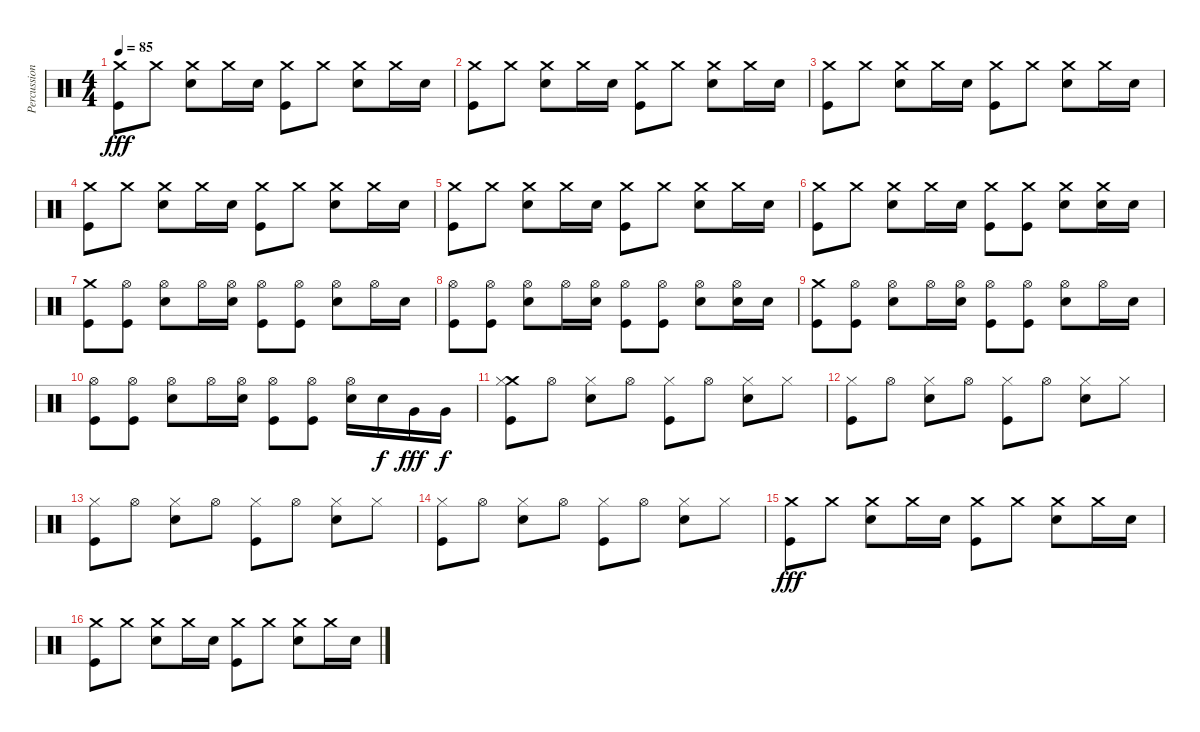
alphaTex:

\track ("Percussion" "Percussion") {instrument percussion}
\staff {score}
\articulation defaults
\ts (4 4)
\tempo 85
\clef neutral
\ks c
("Crash medium (hit)" "Kick (hit)").8{dy fff} "Crash medium (hit)".8 ("Crash medium (hit)" "Electric Snare (hit)").8 "Crash medium (hit)".16 "Electric Snare (hit)".16 ("Crash medium (hit)" "Kick (hit)").8 "Crash medium (hit)".8 ("Crash medium (hit)" "Electric Snare (hit)").8 "Crash medium (hit)".16 "Electric Snare (hit)".16 |
("Crash medium (hit)" "Kick (hit)").8 "Crash medium (hit)".8 ("Crash medium (hit)" "Electric Snare (hit)").8 "Crash medium (hit)".16 "Electric Snare (hit)".16 ("Crash medium (hit)" "Kick (hit)").8 "Crash medium (hit)".8 ("Crash medium (hit)" "Electric Snare (hit)").8 "Crash medium (hit)".16 "Electric Snare (hit)".16 |
("Crash medium (hit)" "Kick (hit)").8 "Crash medium (hit)".8 ("Crash medium (hit)" "Electric Snare (hit)").8 "Crash medium (hit)".16 "Electric Snare (hit)".16 ("Crash medium (hit)" "Kick (hit)").8 "Crash medium (hit)".8 ("Crash medium (hit)" "Electric Snare (hit)").8 "Crash medium (hit)".16 "Electric Snare (hit)".16 |
("Crash medium (hit)" "Kick (hit)").8 "Crash medium (hit)".8 ("Crash medium (hit)" "Electric Snare (hit)").8 "Crash medium (hit)".16 "Electric Snare (hit)".16 ("Crash medium (hit)" "Kick (hit)").8 "Crash medium (hit)".8 ("Crash medium (hit)" "Electric Snare (hit)").8 "Crash medium (hit)".16 "Electric Snare (hit)".16 |
("Crash medium (hit)" "Kick (hit)").8 "Crash medium (hit)".8 ("Crash medium (hit)" "Electric Snare (hit)").8 "Crash medium (hit)".16 "Electric Snare (hit)".16 ("Crash medium (hit)" "Kick (hit)").8 "Crash medium (hit)".8 ("Crash medium (hit)" "Electric Snare (hit)").8 "Crash medium (hit)".16 "Electric Snare (hit)".16 |
("Crash medium (hit)" "Kick (hit)").8 "Crash medium (hit)".8 ("Crash medium (hit)" "Electric Snare (hit)").8 "Crash medium (hit)".16 "Electric Snare (hit)".16 ("Crash medium (hit)" "Kick (hit)").8 ("Crash medium (hit)" "Kick (hit)").8 ("Crash medium (hit)" "Electric Snare (hit)").8 ("Crash medium (hit)" "Electric Snare (hit)").16 "Electric Snare (hit)".16 |
("Crash medium (hit)" "Kick (hit)").8 ("Hi-Hat (open)" "Kick (hit)").8 ("Hi-Hat (open)" "Electric Snare (hit)").8 "Hi-Hat (open)".16 ("Hi-Hat (open)" "Electric Snare (hit)").16 ("Hi-Hat (open)" "Kick (hit)").8 ("Hi-Hat (open)" "Kick (hit)").8 ("Hi-Hat (open)" "Electric Snare (hit)").8 "Hi-Hat (open)".16 "Electric Snare (hit)".16 |
("Hi-Hat (open)" "Kick (hit)").8 ("Hi-Hat (open)" "Kick (hit)").8 ("Hi-Hat (open)" "Electric Snare (hit)").8 "Hi-Hat (open)".16 ("Hi-Hat (open)" "Electric Snare (hit)").16 ("Hi-Hat (open)" "Kick (hit)").8 ("Hi-Hat (open)" "Kick (hit)").8 ("Hi-Hat (open)" "Electric Snare (hit)").8 ("Hi-Hat (open)" "Electric Snare (hit)").16 "Electric Snare (hit)".16 |
("Crash medium (hit)" "Kick (hit)").8 ("Hi-Hat (open)" "Kick (hit)").8 ("Hi-Hat (open)" "Electric Snare (hit)").8 "Hi-Hat (open)".16 ("Hi-Hat (open)" "Electric Snare (hit)").16 ("Hi-Hat (open)" "Kick (hit)").8 ("Hi-Hat (open)" "Kick (hit)").8 ("Hi-Hat (open)" "Electric Snare (hit)").8 "Hi-Hat (open)".16 "Electric Snare (hit)".16 |
("Hi-Hat (open)" "Kick (hit)").8 ("Hi-Hat (open)" "Kick (hit)").8 ("Hi-Hat (open)" "Electric Snare (hit)").8 "Hi-Hat (open)".16 ("Hi-Hat (open)" "Electric Snare (hit)").16 ("Hi-Hat (open)" "Kick (hit)").8 ("Hi-Hat (open)" "Kick (hit)").8 ("Hi-Hat (open)" "Electric Snare (hit)").16 "Electric Snare (hit)".16{dy f} "Very Low Tom (hit)".16{dy fff} "Very Low Tom (hit)".16{dy f} |
("Crash medium (hit)" "Hi-Hat (closed)" "Kick (hit)").8 "Hi-Hat (open)".8 ("Hi-Hat (closed)" "Snare (hit) 2").8 "Hi-Hat (open)".8 ("Hi-Hat (closed)" "Kick (hit)").8 "Hi-Hat (open)".8 ("Hi-Hat (closed)" "Snare (hit) 2").8 "Hi-Hat (closed)".8 |
("Hi-Hat (closed)" "Kick (hit)").8 "Hi-Hat (open)".8 ("Hi-Hat (closed)" "Snare (hit) 2").8 "Hi-Hat (open)".8 ("Hi-Hat (closed)" "Kick (hit)").8 "Hi-Hat (open)".8 ("Hi-Hat (closed)" "Snare (hit) 2").8 "Hi-Hat (closed)".8 |
("Hi-Hat (closed)" "Kick (hit)").8 "Hi-Hat (open)".8 ("Hi-Hat (closed)" "Snare (hit) 2").8 "Hi-Hat (open)".8 ("Hi-Hat (closed)" "Kick (hit)").8 "Hi-Hat (open)".8 ("Hi-Hat (closed)" "Snare (hit) 2").8 "Hi-Hat (closed)".8 |
("Hi-Hat (closed)" "Kick (hit)").8 "Hi-Hat (open)".8 ("Hi-Hat (closed)" "Snare (hit) 2").8 "Hi-Hat (open)".8 ("Hi-Hat (closed)" "Kick (hit)").8 "Hi-Hat (open)".8 ("Hi-Hat (closed)" "Snare (hit) 2").8 "Hi-Hat (closed)".8 |
("Crash medium (hit)" "Kick (hit)").8{dy fff} "Crash medium (hit)".8 ("Crash medium (hit)" "Electric Snare (hit)").8 "Crash medium (hit)".16 "Electric Snare (hit)".16 ("Crash medium (hit)" "Kick (hit)").8 "Crash medium (hit)".8 ("Crash medium (hit)" "Electric Snare (hit)").8 "Crash medium (hit)".16 "Electric Snare (hit)".16 |
("Crash medium (hit)" "Kick (hit)").8 "Crash medium (hit)".8 ("Crash medium (hit)" "Electric Snare (hit)").8 "Crash medium (hit)".16 "Electric Snare (hit)".16 ("Crash medium (hit)" "Kick (hit)").8 "Crash medium (hit)".8 ("Crash medium (hit)" "Electric Snare (hit)").8 "Crash medium (hit)".16 "Electric Snare (hit)".16
